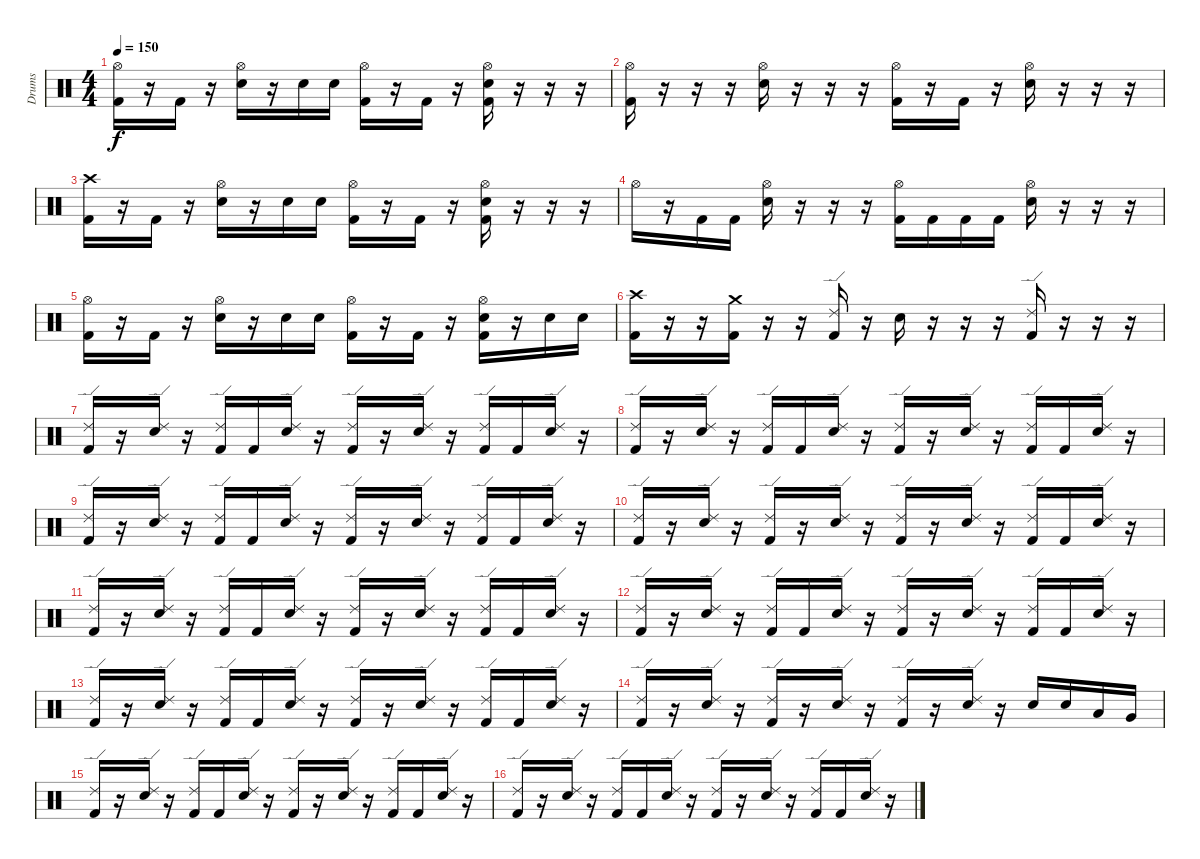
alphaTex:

\track ("Drums" "Drums") {instrument percussion}
\staff {score}
\articulation defaults
\ts (4 4)
\tempo 150
\clef neutral
\ks c
("Hi-Hat (open)" "Kick (hit) 2").16{dy f} r.16 "Kick (hit) 2".16 r.16 ("Hi-Hat (open)" "Electric Snare (hit)").16 r.16 "Electric Snare (hit)".16 "Electric Snare (hit)".16 ("Hi-Hat (open)" "Kick (hit) 2").16 r.16 "Kick (hit) 2".16 r.16 ("Hi-Hat (open)" "Electric Snare (hit)" "Kick (hit) 2").16 r.16 r.16 r.16 |
("Hi-Hat (open)" "Kick (hit) 2").16 r.16 r.16 r.16 ("Hi-Hat (open)" "Electric Snare (hit)").16 r.16 r.16 r.16 ("Hi-Hat (open)" "Kick (hit) 2").16 r.16 "Kick (hit) 2".16 r.16 ("Hi-Hat (open)" "Electric Snare (hit)").16 r.16 r.16 r.16 |
("Crash high (hit)" "Kick (hit) 2").16 r.16 "Kick (hit) 2".16 r.16 ("Hi-Hat (open)" "Electric Snare (hit)").16 r.16 "Electric Snare (hit)".16 "Electric Snare (hit)".16 ("Hi-Hat (open)" "Kick (hit) 2").16 r.16 "Kick (hit) 2".16 r.16 ("Hi-Hat (open)" "Electric Snare (hit)" "Kick (hit) 2").16 r.16 r.16 r.16 |
"Hi-Hat (open)".16 r.16 "Kick (hit) 2".16 "Kick (hit) 2".16 ("Hi-Hat (open)" "Electric Snare (hit)").16 r.16 r.16 r.16 ("Hi-Hat (open)" "Kick (hit) 2").16 "Kick (hit) 2".16 "Kick (hit) 2".16 "Kick (hit) 2".16 ("Hi-Hat (open)" "Electric Snare (hit)").16 r.16 r.16 r.16 |
("Hi-Hat (open)" "Kick (hit) 2").16 r.16 "Kick (hit) 2".16 r.16 ("Hi-Hat (open)" "Electric Snare (hit)").16 r.16 "Electric Snare (hit)".16 "Electric Snare (hit)".16 ("Hi-Hat (open)" "Kick (hit) 2").16 r.16 "Kick (hit) 2".16 r.16 ("Hi-Hat (open)" "Electric Snare (hit)" "Kick (hit) 2").16 r.16 "Electric Snare (hit)".16 "Electric Snare (hit)".16 |
("Crash high (hit)" "Kick (hit) 2").16 r.16 r.16 ("Crash medium (hit)" "Kick (hit) 2").16 r.16 r.16 ("Ride (edge) 2" "Kick (hit) 2").16 r.16 "Electric Snare (hit)".16 r.16 r.16 r.16 ("Ride (edge) 2" "Kick (hit) 2").16 r.16 r.16 r.16 |
("Ride (edge) 2" "Kick (hit) 2").16 r.16 ("Ride (edge) 2" "Electric Snare (hit)").16 r.16 ("Ride (edge) 2" "Kick (hit) 2").16 "Kick (hit) 2".16 ("Ride (edge) 2" "Electric Snare (hit)").16 r.16 ("Ride (edge) 2" "Kick (hit) 2").16 r.16 ("Ride (edge) 2" "Electric Snare (hit)").16 r.16 ("Ride (edge) 2" "Kick (hit) 2").16 "Kick (hit) 2".16 ("Ride (edge) 2" "Electric Snare (hit)").16 r.16 |
("Ride (edge) 2" "Kick (hit) 2").16 r.16 ("Ride (edge) 2" "Electric Snare (hit)").16 r.16 ("Ride (edge) 2" "Kick (hit) 2").16 "Kick (hit) 2".16 ("Ride (edge) 2" "Electric Snare (hit)").16 r.16 ("Ride (edge) 2" "Kick (hit) 2").16 r.16 ("Ride (edge) 2" "Electric Snare (hit)").16 r.16 ("Ride (edge) 2" "Kick (hit) 2").16 "Kick (hit) 2".16 ("Ride (edge) 2" "Electric Snare (hit)").16 r.16 |
("Ride (edge) 2" "Kick (hit) 2").16 r.16 ("Ride (edge) 2" "Electric Snare (hit)").16 r.16 ("Ride (edge) 2" "Kick (hit) 2").16 "Kick (hit) 2".16 ("Ride (edge) 2" "Electric Snare (hit)").16 r.16 ("Ride (edge) 2" "Kick (hit) 2").16 r.16 ("Ride (edge) 2" "Electric Snare (hit)").16 r.16 ("Ride (edge) 2" "Kick (hit) 2").16 "Kick (hit) 2".16 ("Ride (edge) 2" "Electric Snare (hit)").16 r.16 |
("Ride (edge) 2" "Kick (hit) 2").16 r.16 ("Ride (edge) 2" "Electric Snare (hit)").16 r.16 ("Ride (edge) 2" "Kick (hit) 2").16 r.16 ("Ride (edge) 2" "Electric Snare (hit)").16 r.16 ("Ride (edge) 2" "Kick (hit) 2").16 r.16 ("Ride (edge) 2" "Electric Snare (hit)").16 r.16 ("Ride (edge) 2" "Kick (hit) 2").16 "Kick (hit) 2".16 ("Ride (edge) 2" "Electric Snare (hit)").16 r.16 |
("Ride (edge) 2" "Kick (hit) 2").16 r.16 ("Ride (edge) 2" "Electric Snare (hit)").16 r.16 ("Ride (edge) 2" "Kick (hit) 2").16 "Kick (hit) 2".16 ("Ride (edge) 2" "Electric Snare (hit)").16 r.16 ("Ride (edge) 2" "Kick (hit) 2").16 r.16 ("Ride (edge) 2" "Electric Snare (hit)").16 r.16 ("Ride (edge) 2" "Kick (hit) 2").16 "Kick (hit) 2".16 ("Ride (edge) 2" "Electric Snare (hit)").16 r.16 |
("Ride (edge) 2" "Kick (hit) 2").16 r.16 ("Ride (edge) 2" "Electric Snare (hit)").16 r.16 ("Ride (edge) 2" "Kick (hit) 2").16 "Kick (hit) 2".16 ("Ride (edge) 2" "Electric Snare (hit)").16 r.16 ("Ride (edge) 2" "Kick (hit) 2").16 r.16 ("Ride (edge) 2" "Electric Snare (hit)").16 r.16 ("Ride (edge) 2" "Kick (hit) 2").16 "Kick (hit) 2".16 ("Ride (edge) 2" "Electric Snare (hit)").16 r.16 |
("Ride (edge) 2" "Kick (hit) 2").16 r.16 ("Ride (edge) 2" "Electric Snare (hit)").16 r.16 ("Ride (edge) 2" "Kick (hit) 2").16 "Kick (hit) 2".16 ("Ride (edge) 2" "Electric Snare (hit)").16 r.16 ("Ride (edge) 2" "Kick (hit) 2").16 r.16 ("Ride (edge) 2" "Electric Snare (hit)").16 r.16 ("Ride (edge) 2" "Kick (hit) 2").16 "Kick (hit) 2".16 ("Ride (edge) 2" "Electric Snare (hit)").16 r.16 |
("Ride (edge) 2" "Kick (hit) 2").16 r.16 ("Ride (edge) 2" "Electric Snare (hit)").16 r.16 ("Ride (edge) 2" "Kick (hit) 2").16 r.16 ("Ride (edge) 2" "Electric Snare (hit)").16 r.16 ("Ride (edge) 2" "Kick (hit) 2").16 r.16 ("Ride (edge) 2" "Electric Snare (hit)").16 r.16 "Electric Snare (hit)".16 "Electric Snare (hit)".16 "Low Tom (hit)".16 "Very Low Tom (hit)".16 |
("Ride (edge) 2" "Kick (hit) 2").16 r.16 ("Ride (edge) 2" "Electric Snare (hit)").16 r.16 ("Ride (edge) 2" "Kick (hit) 2").16 "Kick (hit) 2".16 ("Ride (edge) 2" "Electric Snare (hit)").16 r.16 ("Ride (edge) 2" "Kick (hit) 2").16 r.16 ("Ride (edge) 2" "Electric Snare (hit)").16 r.16 ("Ride (edge) 2" "Kick (hit) 2").16 "Kick (hit) 2".16 ("Ride (edge) 2" "Electric Snare (hit)").16 r.16 |
("Ride (edge) 2" "Kick (hit) 2").16 r.16 ("Ride (edge) 2" "Electric Snare (hit)").16 r.16 ("Ride (edge) 2" "Kick (hit) 2").16 "Kick (hit) 2".16 ("Ride (edge) 2" "Electric Snare (hit)").16 r.16 ("Ride (edge) 2" "Kick (hit) 2").16 r.16 ("Ride (edge) 2" "Electric Snare (hit)").16 r.16 ("Ride (edge) 2" "Kick (hit) 2").16 "Kick (hit) 2".16 ("Ride (edge) 2" "Electric Snare (hit)").16 r.16
